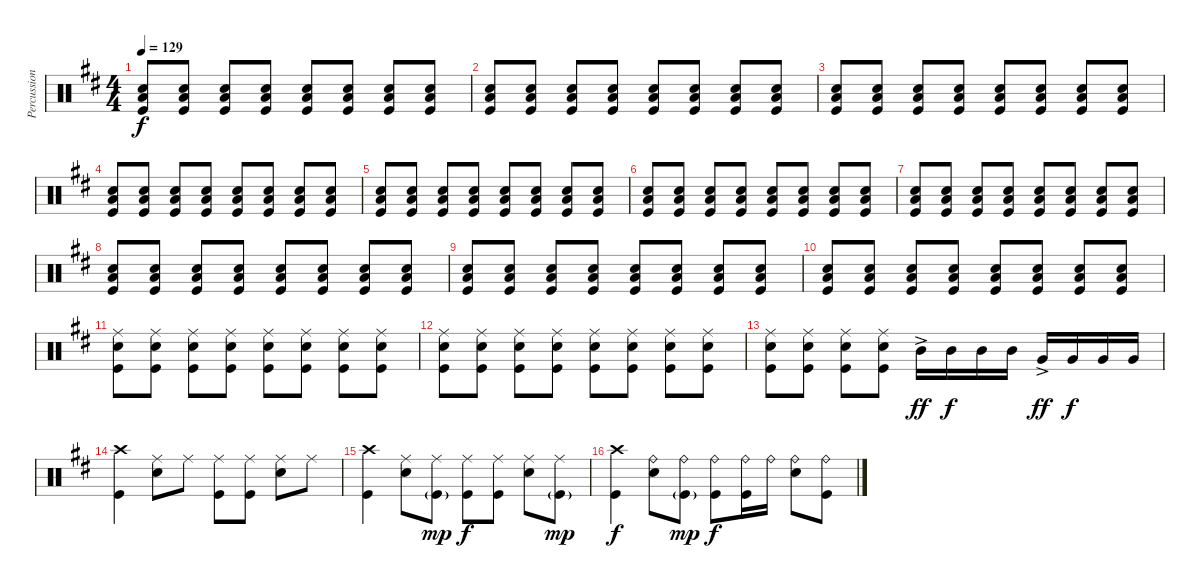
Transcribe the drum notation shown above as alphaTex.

\track ("Percussion" "Percussion") {instrument percussion}
\staff {score}
\articulation defaults
\ts (4 4)
\tempo 129
\clef neutral
\ks bminor
("Snare (hit) 2" "Low Floor Tom (hit)" "Kick (hit)").8{dy f volume 8} ("Snare (hit) 2" "Low Floor Tom (hit)" "Kick (hit)").8 ("Snare (hit) 2" "Low Floor Tom (hit)" "Kick (hit)").8 ("Snare (hit) 2" "Low Floor Tom (hit)" "Kick (hit)").8 ("Snare (hit) 2" "Low Floor Tom (hit)" "Kick (hit)").8 ("Snare (hit) 2" "Low Floor Tom (hit)" "Kick (hit)").8 ("Snare (hit) 2" "Low Floor Tom (hit)" "Kick (hit)").8 ("Snare (hit) 2" "Low Floor Tom (hit)" "Kick (hit)").8 |
("Snare (hit) 2" "Low Floor Tom (hit)" "Kick (hit)").8 ("Snare (hit) 2" "Low Floor Tom (hit)" "Kick (hit)").8 ("Snare (hit) 2" "Low Floor Tom (hit)" "Kick (hit)").8 ("Snare (hit) 2" "Low Floor Tom (hit)" "Kick (hit)").8 ("Snare (hit) 2" "Low Floor Tom (hit)" "Kick (hit)").8 ("Snare (hit) 2" "Low Floor Tom (hit)" "Kick (hit)").8 ("Snare (hit) 2" "Low Floor Tom (hit)" "Kick (hit)").8 ("Snare (hit) 2" "Low Floor Tom (hit)" "Kick (hit)").8 |
("Snare (hit) 2" "Low Floor Tom (hit)" "Kick (hit)").8 ("Snare (hit) 2" "Low Floor Tom (hit)" "Kick (hit)").8 ("Snare (hit) 2" "Low Floor Tom (hit)" "Kick (hit)").8 ("Snare (hit) 2" "Low Floor Tom (hit)" "Kick (hit)").8 ("Snare (hit) 2" "Low Floor Tom (hit)" "Kick (hit)").8 ("Snare (hit) 2" "Low Floor Tom (hit)" "Kick (hit)").8 ("Snare (hit) 2" "Low Floor Tom (hit)" "Kick (hit)").8 ("Snare (hit) 2" "Low Floor Tom (hit)" "Kick (hit)").8 |
("Snare (hit) 2" "Low Floor Tom (hit)" "Kick (hit)").8 ("Snare (hit) 2" "Low Floor Tom (hit)" "Kick (hit)").8 ("Snare (hit) 2" "Low Floor Tom (hit)" "Kick (hit)").8 ("Snare (hit) 2" "Low Floor Tom (hit)" "Kick (hit)").8 ("Snare (hit) 2" "Low Floor Tom (hit)" "Kick (hit)").8 ("Snare (hit) 2" "Low Floor Tom (hit)" "Kick (hit)").8 ("Snare (hit) 2" "Low Floor Tom (hit)" "Kick (hit)").8 ("Snare (hit) 2" "Low Floor Tom (hit)" "Kick (hit)").8 |
("Snare (hit) 2" "Low Floor Tom (hit)" "Kick (hit)").8{volume 9} ("Snare (hit) 2" "Low Floor Tom (hit)" "Kick (hit)").8 ("Snare (hit) 2" "Low Floor Tom (hit)" "Kick (hit)").8 ("Snare (hit) 2" "Low Floor Tom (hit)" "Kick (hit)").8 ("Snare (hit) 2" "Low Floor Tom (hit)" "Kick (hit)").8 ("Snare (hit) 2" "Low Floor Tom (hit)" "Kick (hit)").8 ("Snare (hit) 2" "Low Floor Tom (hit)" "Kick (hit)").8 ("Snare (hit) 2" "Low Floor Tom (hit)" "Kick (hit)").8 |
("Snare (hit) 2" "Low Floor Tom (hit)" "Kick (hit)").8 ("Snare (hit) 2" "Low Floor Tom (hit)" "Kick (hit)").8 ("Snare (hit) 2" "Low Floor Tom (hit)" "Kick (hit)").8 ("Snare (hit) 2" "Low Floor Tom (hit)" "Kick (hit)").8 ("Snare (hit) 2" "Low Floor Tom (hit)" "Kick (hit)").8 ("Snare (hit) 2" "Low Floor Tom (hit)" "Kick (hit)").8 ("Snare (hit) 2" "Low Floor Tom (hit)" "Kick (hit)").8 ("Snare (hit) 2" "Low Floor Tom (hit)" "Kick (hit)").8 |
("Snare (hit) 2" "Low Floor Tom (hit)" "Kick (hit)").8{volume 10} ("Snare (hit) 2" "Low Floor Tom (hit)" "Kick (hit)").8 ("Snare (hit) 2" "Low Floor Tom (hit)" "Kick (hit)").8 ("Snare (hit) 2" "Low Floor Tom (hit)" "Kick (hit)").8 ("Snare (hit) 2" "Low Floor Tom (hit)" "Kick (hit)").8 ("Snare (hit) 2" "Low Floor Tom (hit)" "Kick (hit)").8 ("Snare (hit) 2" "Low Floor Tom (hit)" "Kick (hit)").8 ("Snare (hit) 2" "Low Floor Tom (hit)" "Kick (hit)").8 |
("Snare (hit) 2" "Low Floor Tom (hit)" "Kick (hit)").8 ("Snare (hit) 2" "Low Floor Tom (hit)" "Kick (hit)").8 ("Snare (hit) 2" "Low Floor Tom (hit)" "Kick (hit)").8 ("Snare (hit) 2" "Low Floor Tom (hit)" "Kick (hit)").8 ("Snare (hit) 2" "Low Floor Tom (hit)" "Kick (hit)").8 ("Snare (hit) 2" "Low Floor Tom (hit)" "Kick (hit)").8 ("Snare (hit) 2" "Low Floor Tom (hit)" "Kick (hit)").8 ("Snare (hit) 2" "Low Floor Tom (hit)" "Kick (hit)").8 |
("Snare (hit) 2" "Low Floor Tom (hit)" "Kick (hit)").8 ("Snare (hit) 2" "Low Floor Tom (hit)" "Kick (hit)").8 ("Snare (hit) 2" "Low Floor Tom (hit)" "Kick (hit)").8 ("Snare (hit) 2" "Low Floor Tom (hit)" "Kick (hit)").8 ("Snare (hit) 2" "Low Floor Tom (hit)" "Kick (hit)").8 ("Snare (hit) 2" "Low Floor Tom (hit)" "Kick (hit)").8 ("Snare (hit) 2" "Low Floor Tom (hit)" "Kick (hit)").8 ("Snare (hit) 2" "Low Floor Tom (hit)" "Kick (hit)").8 |
("Snare (hit) 2" "Low Floor Tom (hit)" "Kick (hit)").8 ("Snare (hit) 2" "Low Floor Tom (hit)" "Kick (hit)").8 ("Snare (hit) 2" "Low Floor Tom (hit)" "Kick (hit)").8 ("Snare (hit) 2" "Low Floor Tom (hit)" "Kick (hit)").8 ("Snare (hit) 2" "Low Floor Tom (hit)" "Kick (hit)").8 ("Snare (hit) 2" "Low Floor Tom (hit)" "Kick (hit)").8 ("Snare (hit) 2" "Low Floor Tom (hit)" "Kick (hit)").8 ("Snare (hit) 2" "Low Floor Tom (hit)" "Kick (hit)").8 |
("Ride (middle)" "Snare (hit) 2" "Kick (hit)").8{volume 11} ("Ride (middle)" "Snare (hit) 2" "Kick (hit)").8 ("Ride (middle)" "Snare (hit) 2" "Kick (hit)").8 ("Ride (middle)" "Snare (hit) 2" "Kick (hit)").8 ("Ride (middle)" "Snare (hit) 2" "Kick (hit)").8 ("Ride (middle)" "Snare (hit) 2" "Kick (hit)").8 ("Ride (middle)" "Snare (hit) 2" "Kick (hit)").8 ("Ride (middle)" "Snare (hit) 2" "Kick (hit)").8 |
("Ride (middle)" "Snare (hit) 2" "Kick (hit)").8{volume 12} ("Ride (middle)" "Snare (hit) 2" "Kick (hit)").8 ("Ride (middle)" "Snare (hit) 2" "Kick (hit)").8 ("Ride (middle)" "Snare (hit) 2" "Kick (hit)").8 ("Ride (middle)" "Snare (hit) 2" "Kick (hit)").8 ("Ride (middle)" "Snare (hit) 2" "Kick (hit)").8 ("Ride (middle)" "Snare (hit) 2" "Kick (hit)").8 ("Ride (middle)" "Snare (hit) 2" "Kick (hit)").8 |
("Ride (middle)" "Snare (hit) 2" "Kick (hit)").8{volume 13} ("Ride (middle)" "Snare (hit) 2" "Kick (hit)").8 ("Ride (middle)" "Snare (hit) 2" "Kick (hit)").8 ("Ride (middle)" "Snare (hit) 2" "Kick (hit)").8 "Mid Tom (hit)"{ac}.16{dy ff} "Mid Tom (hit)".16{dy f} "Mid Tom (hit)".16 "Mid Tom (hit)".16 "Very Low Tom (hit)"{ac}.16{dy ff} "Very Low Tom (hit)".16{dy f} "Very Low Tom (hit)".16 "Very Low Tom (hit)".16 |
("Crash high (hit)" "Kick (hit)").4 ("Ride (middle)" "Snare (hit) 2").8 "Ride (middle)".8 ("Ride (middle)" "Kick (hit)").8 ("Ride (middle)" "Kick (hit)").8 ("Ride (middle)" "Snare (hit) 2").8 "Ride (middle)".8 |
("Crash high (hit)" "Kick (hit)").4 ("Ride (middle)" "Snare (hit) 2").8 ("Ride (middle)" "Kick (hit)"{g}).8{dy mp} ("Ride (middle)" "Kick (hit)").8{dy f} ("Ride (middle)" "Kick (hit)").8 ("Ride (middle)" "Snare (hit) 2").8 ("Ride (middle)" "Kick (hit)"{g}).8{dy mp} |
("Crash high (hit)" "Kick (hit)").4{dy f} ("Ride (bell)" "Snare (hit) 2").8 ("Ride (bell)" "Kick (hit)"{g}).8{dy mp} ("Ride (bell)" "Kick (hit)").8{dy f} ("Ride (bell)" "Kick (hit)").16 "Ride (bell)".16 ("Ride (bell)" "Snare (hit) 2").8 ("Ride (bell)" "Kick (hit)").8
